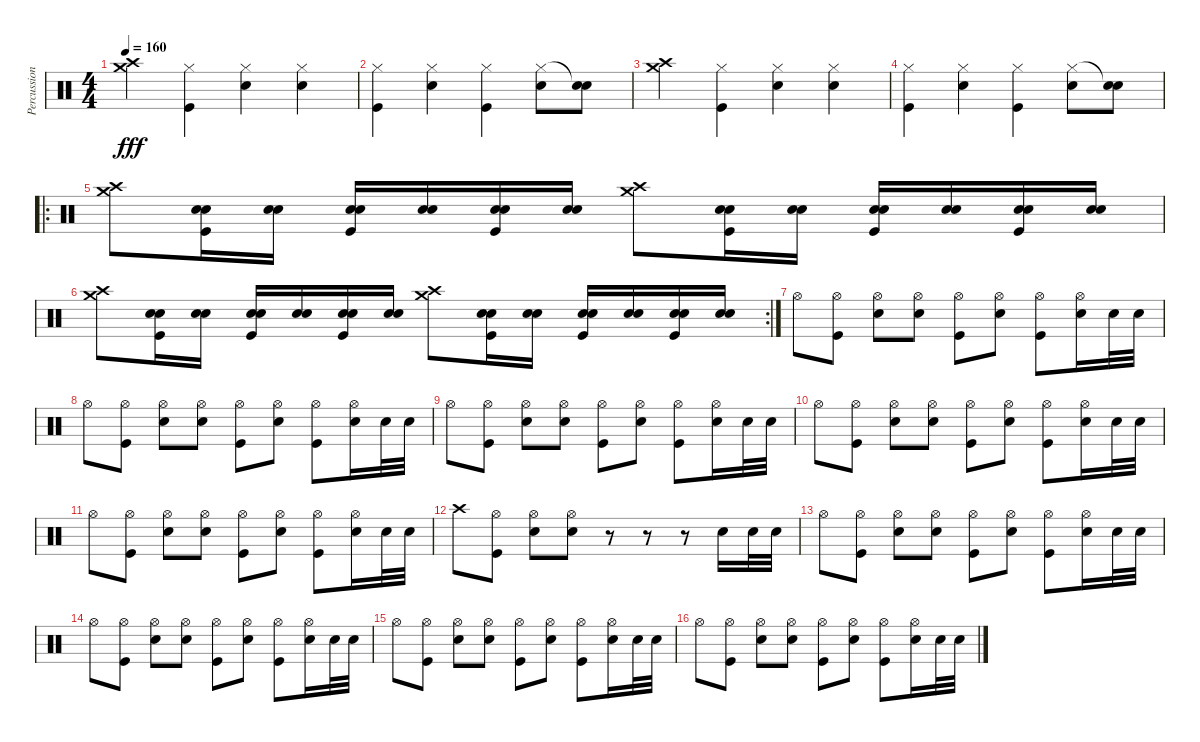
\track ("Percussion" "Percussion") {instrument percussion}
\staff {score}
\articulation defaults
\ts (4 4)
\tempo 160
\clef neutral
\ks c
("Crash high (hit)" "Crash medium (hit)").4{dy fff} ("Kick (hit)" "Hi-Hat (closed)").4 ("Snare (hit) 2" "Hi-Hat (closed)").4 ("Snare (hit) 2" "Hi-Hat (closed)").4 |
("Kick (hit)" "Hi-Hat (closed)").4 ("Snare (hit) 2" "Hi-Hat (closed)").4 ("Kick (hit)" "Hi-Hat (closed)").4 ("Snare (hit) 2" "Hi-Hat (closed)").8 ("Snare (hit) 2" "Snare (hit)"{t}).8 |
("Crash high (hit)" "Crash medium (hit)").4 ("Kick (hit)" "Hi-Hat (closed)").4 ("Snare (hit) 2" "Hi-Hat (closed)").4 ("Snare (hit) 2" "Hi-Hat (closed)").4 |
("Kick (hit)" "Hi-Hat (closed)").4 ("Snare (hit) 2" "Hi-Hat (closed)").4 ("Kick (hit)" "Hi-Hat (closed)").4 ("Snare (hit) 2" "Hi-Hat (closed)").8 ("Snare (hit) 2" "Snare (hit)"{t}).8 |
\ro
("Crash high (hit)" "Crash medium (hit)").8 ("Kick (hit)" "Snare (hit) 2" "Snare (hit) 2").16 ("Snare (hit) 2" "Snare (hit) 2").16 ("Kick (hit)" "Snare (hit) 2" "Snare (hit) 2").16 ("Snare (hit) 2" "Snare (hit) 2").16 ("Kick (hit)" "Snare (hit) 2" "Snare (hit) 2").16 ("Snare (hit) 2" "Snare (hit) 2").16 ("Crash high (hit)" "Crash medium (hit)").8 ("Kick (hit)" "Snare (hit) 2" "Snare (hit) 2").16 ("Snare (hit) 2" "Snare (hit) 2").16 ("Kick (hit)" "Snare (hit) 2" "Snare (hit) 2").16 ("Snare (hit) 2" "Snare (hit) 2").16 ("Kick (hit)" "Snare (hit) 2" "Snare (hit) 2").16 ("Snare (hit) 2" "Snare (hit) 2").16 |
\rc 2
("Crash high (hit)" "Crash medium (hit)").8 ("Kick (hit)" "Snare (hit) 2" "Snare (hit) 2").16 ("Snare (hit) 2" "Snare (hit) 2").16 ("Kick (hit)" "Snare (hit) 2" "Snare (hit) 2").16 ("Snare (hit) 2" "Snare (hit) 2").16 ("Kick (hit)" "Snare (hit) 2" "Snare (hit) 2").16 ("Snare (hit) 2" "Snare (hit) 2").16 ("Crash high (hit)" "Crash medium (hit)").8 ("Kick (hit)" "Snare (hit) 2" "Snare (hit) 2").16 ("Snare (hit) 2" "Snare (hit) 2").16 ("Kick (hit)" "Snare (hit) 2" "Snare (hit) 2").16 ("Snare (hit) 2" "Snare (hit) 2").16 ("Kick (hit)" "Snare (hit) 2" "Snare (hit) 2").16 ("Snare (hit) 2" "Snare (hit) 2").16 |
"Hi-Hat (open)".8 ("Kick (hit)" "Hi-Hat (open)").8 ("Snare (hit) 2" "Hi-Hat (open)").8 ("Snare (hit) 2" "Hi-Hat (open)").8 ("Kick (hit)" "Hi-Hat (open)").8 ("Snare (hit) 2" "Hi-Hat (open)").8 ("Kick (hit)" "Hi-Hat (open)").8 ("Snare (hit) 2" "Hi-Hat (open)").16 "Snare (hit) 2".32 "Snare (hit) 2".32 |
"Hi-Hat (open)".8 ("Kick (hit)" "Hi-Hat (open)").8 ("Snare (hit) 2" "Hi-Hat (open)").8 ("Snare (hit) 2" "Hi-Hat (open)").8 ("Kick (hit)" "Hi-Hat (open)").8 ("Snare (hit) 2" "Hi-Hat (open)").8 ("Kick (hit)" "Hi-Hat (open)").8 ("Snare (hit) 2" "Hi-Hat (open)").16 "Snare (hit) 2".32 "Snare (hit) 2".32 |
"Hi-Hat (open)".8 ("Kick (hit)" "Hi-Hat (open)").8 ("Snare (hit) 2" "Hi-Hat (open)").8 ("Snare (hit) 2" "Hi-Hat (open)").8 ("Kick (hit)" "Hi-Hat (open)").8 ("Snare (hit) 2" "Hi-Hat (open)").8 ("Kick (hit)" "Hi-Hat (open)").8 ("Snare (hit) 2" "Hi-Hat (open)").16 "Snare (hit) 2".32 "Snare (hit) 2".32 |
"Hi-Hat (open)".8 ("Kick (hit)" "Hi-Hat (open)").8 ("Snare (hit) 2" "Hi-Hat (open)").8 ("Snare (hit) 2" "Hi-Hat (open)").8 ("Kick (hit)" "Hi-Hat (open)").8 ("Snare (hit) 2" "Hi-Hat (open)").8 ("Kick (hit)" "Hi-Hat (open)").8 ("Snare (hit) 2" "Hi-Hat (open)").16 "Snare (hit) 2".32 "Snare (hit) 2".32 |
"Hi-Hat (open)".8 ("Kick (hit)" "Hi-Hat (open)").8 ("Snare (hit) 2" "Hi-Hat (open)").8 ("Snare (hit) 2" "Hi-Hat (open)").8 ("Kick (hit)" "Hi-Hat (open)").8 ("Snare (hit) 2" "Hi-Hat (open)").8 ("Kick (hit)" "Hi-Hat (open)").8 ("Snare (hit) 2" "Hi-Hat (open)").16 "Snare (hit) 2".32 "Snare (hit) 2".32 |
"Crash high (hit)".8 ("Kick (hit)" "Hi-Hat (open)").8 ("Snare (hit) 2" "Hi-Hat (open)").8 ("Snare (hit) 2" "Hi-Hat (open)").8 r.8 r.8 r.8 "Snare (hit) 2".16 "Snare (hit) 2".32 "Snare (hit) 2".32 |
"Hi-Hat (open)".8 ("Kick (hit)" "Hi-Hat (open)").8 ("Snare (hit) 2" "Hi-Hat (open)").8 ("Snare (hit) 2" "Hi-Hat (open)").8 ("Kick (hit)" "Hi-Hat (open)").8 ("Snare (hit) 2" "Hi-Hat (open)").8 ("Kick (hit)" "Hi-Hat (open)").8 ("Snare (hit) 2" "Hi-Hat (open)").16 "Snare (hit) 2".32 "Snare (hit) 2".32 |
"Hi-Hat (open)".8 ("Kick (hit)" "Hi-Hat (open)").8 ("Snare (hit) 2" "Hi-Hat (open)").8 ("Snare (hit) 2" "Hi-Hat (open)").8 ("Kick (hit)" "Hi-Hat (open)").8 ("Snare (hit) 2" "Hi-Hat (open)").8 ("Kick (hit)" "Hi-Hat (open)").8 ("Snare (hit) 2" "Hi-Hat (open)").16 "Snare (hit) 2".32 "Snare (hit) 2".32 |
"Hi-Hat (open)".8 ("Kick (hit)" "Hi-Hat (open)").8 ("Snare (hit) 2" "Hi-Hat (open)").8 ("Snare (hit) 2" "Hi-Hat (open)").8 ("Kick (hit)" "Hi-Hat (open)").8 ("Snare (hit) 2" "Hi-Hat (open)").8 ("Kick (hit)" "Hi-Hat (open)").8 ("Snare (hit) 2" "Hi-Hat (open)").16 "Snare (hit) 2".32 "Snare (hit) 2".32 |
"Hi-Hat (open)".8 ("Kick (hit)" "Hi-Hat (open)").8 ("Snare (hit) 2" "Hi-Hat (open)").8 ("Snare (hit) 2" "Hi-Hat (open)").8 ("Kick (hit)" "Hi-Hat (open)").8 ("Snare (hit) 2" "Hi-Hat (open)").8 ("Kick (hit)" "Hi-Hat (open)").8 ("Snare (hit) 2" "Hi-Hat (open)").16 "Snare (hit) 2".32 "Snare (hit) 2".32
